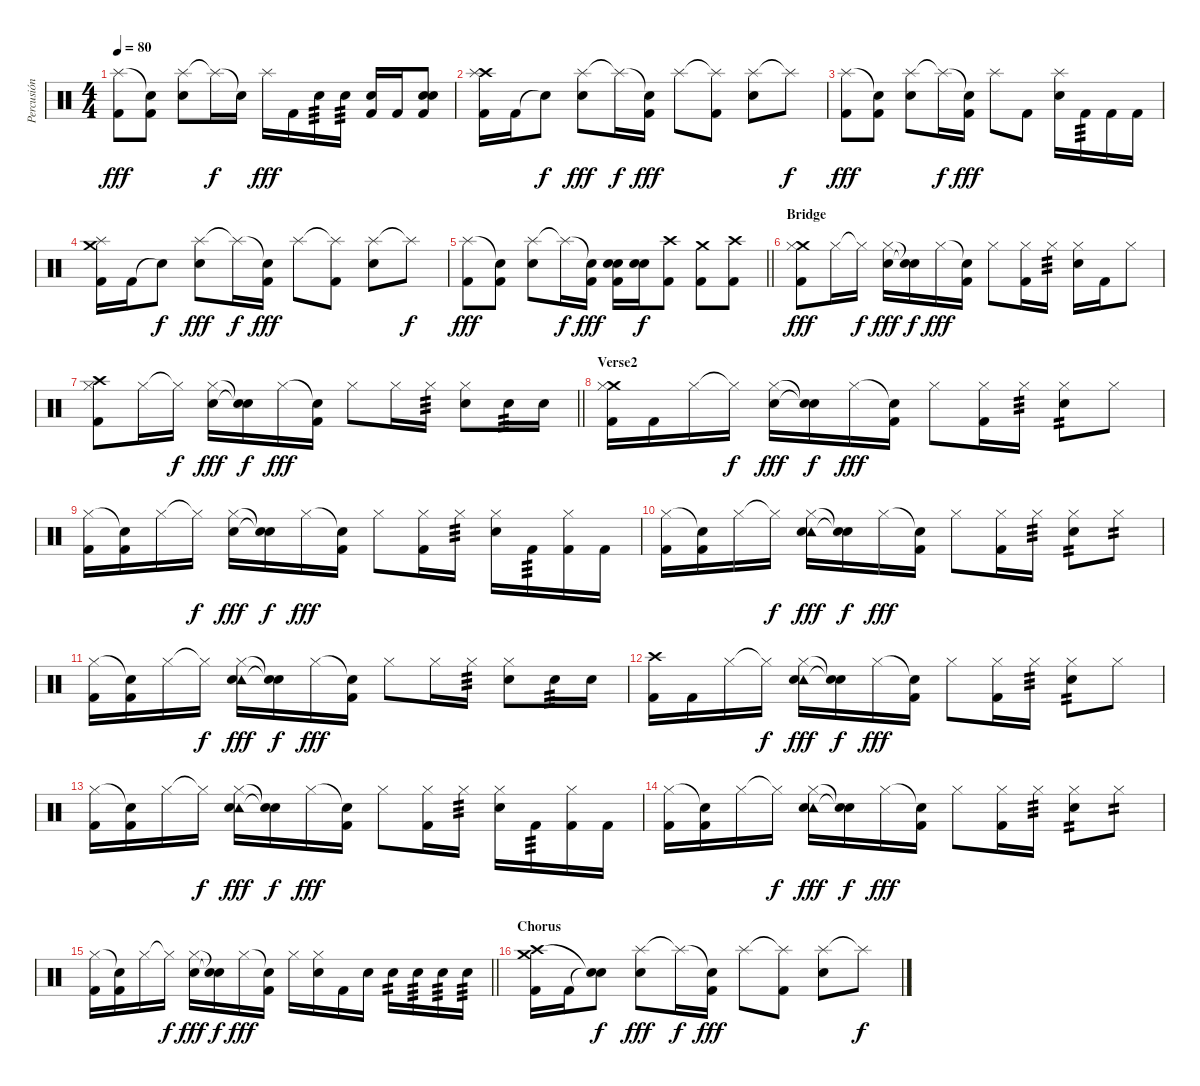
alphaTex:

\track ("Percusión" "Percusión") {instrument percussion}
\staff {score}
\articulation defaults
\ts (4 4)
\tempo 80
\clef neutral
\ks c
("Splash (hit)" "Kick (hit) 2").8{dy fff} ("Snare (hit)"{t} "Kick (hit) 2").8 ("Splash (hit)" "Electric Snare (hit)").8 "Splash (hit)"{t}.16{dy f} "Snare (hit)"{t}.16 "Splash (hit)".16{dy fff} "Kick (hit) 2".16 "Electric Snare (hit)".16{tp 3} "Electric Snare (hit)".16{tp 3} ("Electric Snare (hit)" "Kick (hit) 2").16 "Kick (hit) 2".16 ("Electric Snare (hit)" "Electric Snare (hit)" "Kick (hit) 2").8 |
("Crash high (hit)" "Splash (hit)" "Kick (hit) 2").16 "Kick (hit) 2".16 "Snare (hit)"{t}.8{dy f} ("Splash (hit)" "Electric Snare (hit)").8{dy fff} "Splash (hit)"{t}.16{dy f} ("Snare (hit)"{t} "Kick (hit) 2").16{dy fff} "Splash (hit)".8 ("Splash (hit)"{t} "Kick (hit) 2").8 ("Splash (hit)" "Electric Snare (hit)").8 "Splash (hit)"{t}.8{dy f} |
("Splash (hit)" "Kick (hit) 2").8{dy fff} ("Snare (hit)"{t} "Kick (hit) 2").8 ("Splash (hit)" "Electric Snare (hit)").8 "Splash (hit)"{t}.16{dy f} ("Snare (hit)"{t} "Kick (hit) 2").16{dy fff} "Splash (hit)".8 "Kick (hit) 2".8 ("Splash (hit)" "Electric Snare (hit)").16 "Kick (hit) 2".16{tp 3} "Kick (hit) 2".16 "Kick (hit) 2".16 |
("Crash medium (hit)" "Splash (hit)" "Kick (hit) 2").16 "Kick (hit) 2".16 "Snare (hit)"{t}.8{dy f} ("Splash (hit)" "Electric Snare (hit)").8{dy fff} "Splash (hit)"{t}.16{dy f} ("Snare (hit)"{t} "Kick (hit) 2").16{dy fff} "Splash (hit)".8 ("Splash (hit)"{t} "Kick (hit) 2").8 ("Splash (hit)" "Electric Snare (hit)").8 "Splash (hit)"{t}.8{dy f} |
\barLineRight lightlight
("Splash (hit)" "Kick (hit) 2").8{dy fff} ("Snare (hit)"{t} "Kick (hit) 2").8 ("Splash (hit)" "Electric Snare (hit)").8 "Splash (hit)"{t}.16{dy f} ("Snare (hit)"{t} "Kick (hit) 2").16{dy fff} ("Electric Snare (hit)" "Electric Snare (hit)" "Kick (hit) 2").16 ("Snare (hit) 2" "Electric Snare (hit)").16{dy f} ("Crash high (hit)" "Kick (hit) 2").8 ("Crash medium (hit)" "Kick (hit) 2").8 ("Crash high (hit)" "Kick (hit) 2").8 |
\section ("" "Bridge")
("Crash medium (hit)" "Hi-Hat (closed)" "Kick (hit) 2").8{dy fff} "Hi-Hat (closed)".16 "Hi-Hat (closed)"{t}.16{dy f} ("Hi-Hat (closed)" "Electric Snare (hit)").16{dy fff} ("Snare (hit)"{t} "Snare (hit)"{t}).16{dy f} "Hi-Hat (closed)".16{dy fff} ("Snare (hit)"{t} "Kick (hit) 2").16 "Hi-Hat (closed)".8 ("Hi-Hat (closed)" "Kick (hit) 2").16 "Hi-Hat (closed)".16{tp 3} ("Hi-Hat (closed)" "Electric Snare (hit)").16 "Kick (hit) 2".16 "Hi-Hat (closed)".8 |
\barLineRight lightlight
("Crash high (hit)" "Hi-Hat (closed)" "Kick (hit) 2").8 "Hi-Hat (closed)".16 "Hi-Hat (closed)"{t}.16{dy f} ("Hi-Hat (closed)" "Electric Snare (hit)").16{dy fff} ("Snare (hit)"{t} "Snare (hit)"{t}).16{dy f} "Hi-Hat (closed)".16{dy fff} ("Snare (hit)"{t} "Kick (hit) 2").16 "Hi-Hat (closed)".8 "Hi-Hat (closed)".16 "Hi-Hat (closed)".16{tp 3} ("Hi-Hat (closed)" "Electric Snare (hit)").8 "Electric Snare (hit)".16{tp 3} "Electric Snare (hit)".16 |
\section ("" "Verse2")
("Crash medium (hit)" "Hi-Hat (closed)" "Kick (hit) 2").16 "Kick (hit) 2".16 "Hi-Hat (closed)".16 "Hi-Hat (closed)"{t}.16{dy f} ("Hi-Hat (closed)" "Electric Snare (hit)").16{dy fff} ("Snare (hit)"{t} "Snare (hit)"{t}).16{dy f} "Hi-Hat (closed)".16{dy fff} ("Snare (hit)"{t} "Kick (hit) 2").16 "Hi-Hat (closed)".8 ("Hi-Hat (closed)" "Kick (hit) 2").16 "Hi-Hat (closed)".16{tp 3} ("Hi-Hat (closed)" "Electric Snare (hit)").8{tp 2} "Hi-Hat (closed)".8 |
("Hi-Hat (closed)" "Kick (hit) 2").16 ("Snare (hit)"{t} "Kick (hit) 2").16 "Hi-Hat (closed)".16 "Hi-Hat (closed)"{t}.16{dy f} ("Hi-Hat (closed)" "Electric Snare (hit)").16{dy fff} ("Snare (hit)"{t} "Snare (hit)"{t}).16{dy f} "Hi-Hat (closed)".16{dy fff} ("Snare (hit)"{t} "Kick (hit) 2").16 "Hi-Hat (closed)".8 ("Hi-Hat (closed)" "Kick (hit) 2").16 "Hi-Hat (closed)".16{tp 3} ("Hi-Hat (closed)" "Electric Snare (hit)").16 "Kick (hit) 2".16{tp 3} ("Hi-Hat (closed)" "Kick (hit) 2").16 "Kick (hit) 2".16 |
("Hi-Hat (closed)" "Kick (hit) 2").16 ("Snare (hit)"{t} "Kick (hit) 2").16 "Hi-Hat (closed)".16 "Hi-Hat (closed)"{t}.16{dy f} ("Tambourine (hit)" "Hi-Hat (closed)" "Electric Snare (hit)").16{dy fff} ("Snare (hit)"{t} "Snare (hit)"{t}).16{dy f} "Hi-Hat (closed)".16{dy fff} ("Snare (hit)"{t} "Kick (hit) 2").16 "Hi-Hat (closed)".8 ("Hi-Hat (closed)" "Kick (hit) 2").16 "Hi-Hat (closed)".16{tp 3} ("Hi-Hat (closed)" "Electric Snare (hit)").8{tp 2} "Hi-Hat (closed)".8{tp 2} |
("Hi-Hat (closed)" "Kick (hit) 2").16 ("Snare (hit)"{t} "Kick (hit) 2").16 "Hi-Hat (closed)".16 "Hi-Hat (closed)"{t}.16{dy f} ("Tambourine (hit)" "Hi-Hat (closed)" "Electric Snare (hit)").16{dy fff} ("Snare (hit)"{t} "Snare (hit)"{t}).16{dy f} "Hi-Hat (closed)".16{dy fff} ("Snare (hit)"{t} "Kick (hit) 2").16 "Hi-Hat (closed)".8 "Hi-Hat (closed)".16 "Hi-Hat (closed)".16{tp 3} ("Hi-Hat (closed)" "Electric Snare (hit)").8 "Electric Snare (hit)".16{tp 3} "Electric Snare (hit)".16 |
("Crash high (hit)" "Kick (hit) 2").16 "Kick (hit) 2".16 "Hi-Hat (closed)".16 "Hi-Hat (closed)"{t}.16{dy f} ("Tambourine (hit)" "Hi-Hat (closed)" "Electric Snare (hit)").16{dy fff} ("Snare (hit)"{t} "Snare (hit)"{t}).16{dy f} "Hi-Hat (closed)".16{dy fff} ("Snare (hit)"{t} "Kick (hit) 2").16 "Hi-Hat (closed)".8 ("Hi-Hat (closed)" "Kick (hit) 2").16 "Hi-Hat (closed)".16{tp 3} ("Hi-Hat (closed)" "Electric Snare (hit)").8{tp 2} "Hi-Hat (closed)".8 |
("Hi-Hat (closed)" "Kick (hit) 2").16 ("Snare (hit)"{t} "Kick (hit) 2").16 "Hi-Hat (closed)".16 "Hi-Hat (closed)"{t}.16{dy f} ("Tambourine (hit)" "Hi-Hat (closed)" "Electric Snare (hit)").16{dy fff} ("Snare (hit)"{t} "Snare (hit)"{t}).16{dy f} "Hi-Hat (closed)".16{dy fff} ("Snare (hit)"{t} "Kick (hit) 2").16 "Hi-Hat (closed)".8 ("Hi-Hat (closed)" "Kick (hit) 2").16 "Hi-Hat (closed)".16{tp 3} ("Hi-Hat (closed)" "Electric Snare (hit)").16 "Kick (hit) 2".16{tp 3} ("Hi-Hat (closed)" "Kick (hit) 2").16 "Kick (hit) 2".16 |
("Hi-Hat (closed)" "Kick (hit) 2").16 ("Snare (hit)"{t} "Kick (hit) 2").16 "Hi-Hat (closed)".16 "Hi-Hat (closed)"{t}.16{dy f} ("Tambourine (hit)" "Hi-Hat (closed)" "Electric Snare (hit)").16{dy fff} ("Snare (hit)"{t} "Snare (hit)"{t}).16{dy f} "Hi-Hat (closed)".16{dy fff} ("Snare (hit)"{t} "Kick (hit) 2").16 "Hi-Hat (closed)".8 ("Hi-Hat (closed)" "Kick (hit) 2").16 "Hi-Hat (closed)".16{tp 3} ("Hi-Hat (closed)" "Electric Snare (hit)").8{tp 2} "Hi-Hat (closed)".8{tp 2} |
\barLineRight lightlight
("Hi-Hat (closed)" "Kick (hit) 2").16 ("Snare (hit)"{t} "Kick (hit) 2").16 "Hi-Hat (closed)".16 "Hi-Hat (closed)"{t}.16{dy f} ("Hi-Hat (closed)" "Electric Snare (hit)").16{dy fff} ("Snare (hit)"{t} "Snare (hit)"{t}).16{dy f} "Hi-Hat (closed)".16{dy fff} ("Snare (hit)"{t} "Kick (hit) 2").16 "Hi-Hat (closed)".16 ("Hi-Hat (closed)" "Electric Snare (hit)").16 "Kick (hit) 2".16 "Electric Snare (hit)".16 "Electric Snare (hit)".16{tp 2} "Electric Snare (hit)".16{tp 3} "Electric Snare (hit)".16{tp 3} "Electric Snare (hit)".16{tp 3} |
\section ("" "Chorus")
("Crash medium (hit)" "Crash high (hit)" "Kick (hit) 2").16 "Kick (hit) 2".16 ("Snare (hit)"{t} "Snare (hit)"{t}).8{dy f} ("Splash (hit)" "Electric Snare (hit)").8{dy fff} "Splash (hit)"{t}.16{dy f} ("Snare (hit)"{t} "Kick (hit) 2").16{dy fff} "Splash (hit)".8 ("Splash (hit)"{t} "Kick (hit) 2").8 ("Splash (hit)" "Electric Snare (hit)").8 "Splash (hit)"{t}.8{dy f}
